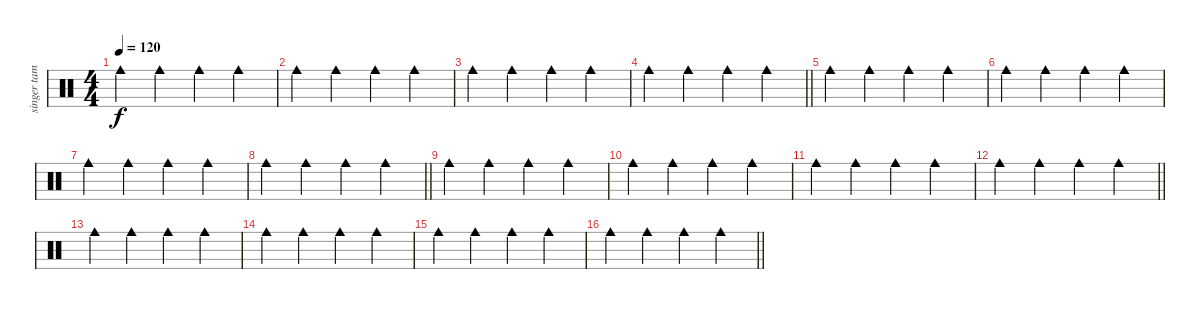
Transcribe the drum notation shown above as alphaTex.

\track ("singer tambo" "singer tam") {instrument percussion}
\staff {score}
\articulation defaults
\ts (4 4)
\tempo 120
\clef neutral
\ks c "Cowbell medium (hit)".4{dy f} "Cowbell medium (hit)".4 "Cowbell medium (hit)".4 "Cowbell medium (hit)".4
|
"Cowbell medium (hit)".4 "Cowbell medium (hit)".4 "Cowbell medium (hit)".4 "Cowbell medium (hit)".4 |
"Cowbell medium (hit)".4 "Cowbell medium (hit)".4 "Cowbell medium (hit)".4 "Cowbell medium (hit)".4 |
\barLineRight lightlight "Cowbell medium (hit)".4 "Cowbell medium (hit)".4 "Cowbell medium (hit)".4 "Cowbell medium (hit)".4
|
"Cowbell medium (hit)".4 "Cowbell medium (hit)".4 "Cowbell medium (hit)".4 "Cowbell medium (hit)".4 |
"Cowbell medium (hit)".4 "Cowbell medium (hit)".4 "Cowbell medium (hit)".4 "Cowbell medium (hit)".4 |
"Cowbell medium (hit)".4 "Cowbell medium (hit)".4 "Cowbell medium (hit)".4 "Cowbell medium (hit)".4 |
\barLineRight lightlight "Cowbell medium (hit)".4 "Cowbell medium (hit)".4 "Cowbell medium (hit)".4 "Cowbell medium (hit)".4
|
"Cowbell medium (hit)".4 "Cowbell medium (hit)".4 "Cowbell medium (hit)".4 "Cowbell medium (hit)".4 |
"Cowbell medium (hit)".4 "Cowbell medium (hit)".4 "Cowbell medium (hit)".4 "Cowbell medium (hit)".4 |
"Cowbell medium (hit)".4 "Cowbell medium (hit)".4 "Cowbell medium (hit)".4 "Cowbell medium (hit)".4 |
\barLineRight lightlight "Cowbell medium (hit)".4 "Cowbell medium (hit)".4 "Cowbell medium (hit)".4 "Cowbell medium (hit)".4
|
"Cowbell medium (hit)".4 "Cowbell medium (hit)".4 "Cowbell medium (hit)".4 "Cowbell medium (hit)".4 |
"Cowbell medium (hit)".4 "Cowbell medium (hit)".4 "Cowbell medium (hit)".4 "Cowbell medium (hit)".4 |
"Cowbell medium (hit)".4 "Cowbell medium (hit)".4 "Cowbell medium (hit)".4 "Cowbell medium (hit)".4 |
\barLineRight lightlight "Cowbell medium (hit)".4 "Cowbell medium (hit)".4 "Cowbell medium (hit)".4 "Cowbell medium (hit)".4
